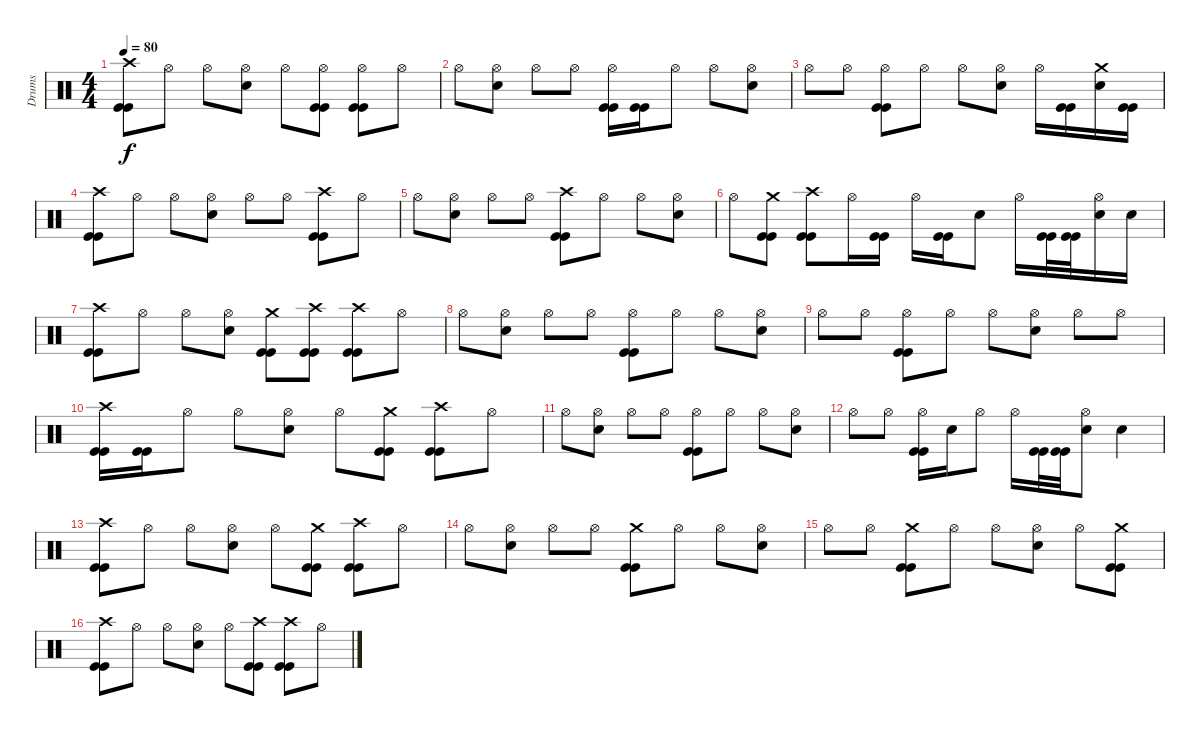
\track ("Drums" "Drums") {instrument percussion}
\staff {score}
\articulation defaults
\ts (4 4)
\tempo 80
\tempo 78
\tempo 80
\clef neutral
\ks c
("Kick (hit)" "Kick (hit)" "Crash high (hit)").8{dy f} "Hi-Hat (open)".8 "Hi-Hat (open)".8 ("Electric Snare (hit)" "Hi-Hat (open)").8 "Hi-Hat (open)".8 ("Kick (hit)" "Kick (hit)" "Hi-Hat (open)").8 ("Kick (hit)" "Kick (hit)" "Hi-Hat (open)").8 "Hi-Hat (open)".8 |
"Hi-Hat (open)".8 ("Electric Snare (hit)" "Hi-Hat (open)").8 "Hi-Hat (open)".8 "Hi-Hat (open)".8 ("Kick (hit)" "Kick (hit)" "Hi-Hat (open)").16 ("Kick (hit)" "Kick (hit)").16 "Hi-Hat (open)".8 "Hi-Hat (open)".8 ("Electric Snare (hit)" "Hi-Hat (open)").8 |
"Hi-Hat (open)".8 "Hi-Hat (open)".8 ("Kick (hit)" "Kick (hit)" "Hi-Hat (open)").8 "Hi-Hat (open)".8 "Hi-Hat (open)".8 ("Electric Snare (hit)" "Hi-Hat (open)").8 "Hi-Hat (open)".16 ("Kick (hit)" "Kick (hit)").16 ("Electric Snare (hit)" "Crash medium (hit)").16 ("Kick (hit)" "Kick (hit)").16 |
("Kick (hit)" "Kick (hit)" "Crash high (hit)").8 "Hi-Hat (open)".8 "Hi-Hat (open)".8 ("Electric Snare (hit)" "Hi-Hat (open)").8 "Hi-Hat (open)".8 "Hi-Hat (open)".8 ("Kick (hit)" "Kick (hit)" "Crash high (hit)").8 "Hi-Hat (open)".8 |
"Hi-Hat (open)".8 ("Electric Snare (hit)" "Hi-Hat (open)").8 "Hi-Hat (open)".8 "Hi-Hat (open)".8 ("Kick (hit)" "Kick (hit)" "Crash high (hit)").8 "Hi-Hat (open)".8 "Hi-Hat (open)".8 ("Electric Snare (hit)" "Hi-Hat (open)").8 |
"Hi-Hat (open)".8 ("Kick (hit)" "Kick (hit)" "Crash medium (hit)").8 ("Kick (hit)" "Kick (hit)" "Crash high (hit)").8 "Hi-Hat (open)".16 ("Kick (hit)" "Kick (hit)").16 "Hi-Hat (open)".16 ("Kick (hit)" "Kick (hit)").16 "Electric Snare (hit)".8 "Hi-Hat (open)".16 ("Kick (hit)" "Kick (hit)").32 ("Kick (hit)" "Kick (hit)").32 ("Electric Snare (hit)" "Hi-Hat (open)").16 "Electric Snare (hit)".16 |
("Kick (hit)" "Kick (hit)" "Crash high (hit)").8 "Hi-Hat (open)".8 "Hi-Hat (open)".8 ("Electric Snare (hit)" "Hi-Hat (open)").8 ("Kick (hit)" "Kick (hit)" "Crash medium (hit)").8 ("Kick (hit)" "Kick (hit)" "Crash high (hit)").8 ("Kick (hit)" "Kick (hit)" "Crash high (hit)").8 "Hi-Hat (open)".8 |
"Hi-Hat (open)".8 ("Electric Snare (hit)" "Hi-Hat (open)").8 "Hi-Hat (open)".8 "Hi-Hat (open)".8 ("Kick (hit)" "Kick (hit)" "Hi-Hat (open)").8 "Hi-Hat (open)".8 "Hi-Hat (open)".8 ("Electric Snare (hit)" "Hi-Hat (open)").8 |
"Hi-Hat (open)".8 "Hi-Hat (open)".8 ("Kick (hit)" "Kick (hit)" "Hi-Hat (open)").8 "Hi-Hat (open)".8 "Hi-Hat (open)".8 ("Electric Snare (hit)" "Hi-Hat (open)").8 "Hi-Hat (open)".8 "Hi-Hat (open)".8 |
("Kick (hit)" "Kick (hit)" "Crash high (hit)").16 ("Kick (hit)" "Kick (hit)").16 "Hi-Hat (open)".8 "Hi-Hat (open)".8 ("Electric Snare (hit)" "Hi-Hat (open)").8 "Hi-Hat (open)".8 ("Kick (hit)" "Kick (hit)" "Crash medium (hit)").8 ("Kick (hit)" "Kick (hit)" "Crash high (hit)").8 "Hi-Hat (open)".8 |
"Hi-Hat (open)".8 ("Electric Snare (hit)" "Hi-Hat (open)").8 "Hi-Hat (open)".8 "Hi-Hat (open)".8 ("Kick (hit)" "Kick (hit)" "Hi-Hat (open)").8 "Hi-Hat (open)".8 "Hi-Hat (open)".8 ("Electric Snare (hit)" "Hi-Hat (open)").8 |
"Hi-Hat (open)".8 "Hi-Hat (open)".8 ("Kick (hit)" "Kick (hit)" "Hi-Hat (open)").16 "Electric Snare (hit)".16 "Hi-Hat (open)".8 "Hi-Hat (open)".16 ("Kick (hit)" "Kick (hit)").32 ("Kick (hit)" "Kick (hit)").32 ("Electric Snare (hit)" "Hi-Hat (open)").8 "Electric Snare (hit)".4 |
("Kick (hit)" "Kick (hit)" "Crash high (hit)").8 "Hi-Hat (open)".8 "Hi-Hat (open)".8 ("Electric Snare (hit)" "Hi-Hat (open)").8 "Hi-Hat (open)".8 ("Kick (hit)" "Kick (hit)" "Crash medium (hit)").8 ("Kick (hit)" "Kick (hit)" "Crash high (hit)").8 "Hi-Hat (open)".8 |
"Hi-Hat (open)".8 ("Electric Snare (hit)" "Hi-Hat (open)").8 "Hi-Hat (open)".8 "Hi-Hat (open)".8 ("Kick (hit)" "Kick (hit)" "Crash medium (hit)").8 "Hi-Hat (open)".8 "Hi-Hat (open)".8 ("Electric Snare (hit)" "Hi-Hat (open)").8 |
"Hi-Hat (open)".8 "Hi-Hat (open)".8 ("Kick (hit)" "Kick (hit)" "Crash medium (hit)").8 "Hi-Hat (open)".8 "Hi-Hat (open)".8 ("Electric Snare (hit)" "Hi-Hat (open)").8 "Hi-Hat (open)".8 ("Kick (hit)" "Kick (hit)" "Crash medium (hit)").8 |
("Kick (hit)" "Kick (hit)" "Crash high (hit)").8 "Hi-Hat (open)".8 "Hi-Hat (open)".8 ("Electric Snare (hit)" "Hi-Hat (open)").8 "Hi-Hat (open)".8 ("Kick (hit)" "Kick (hit)" "Crash high (hit)").8 ("Kick (hit)" "Kick (hit)" "Crash high (hit)").8 "Hi-Hat (open)".8
